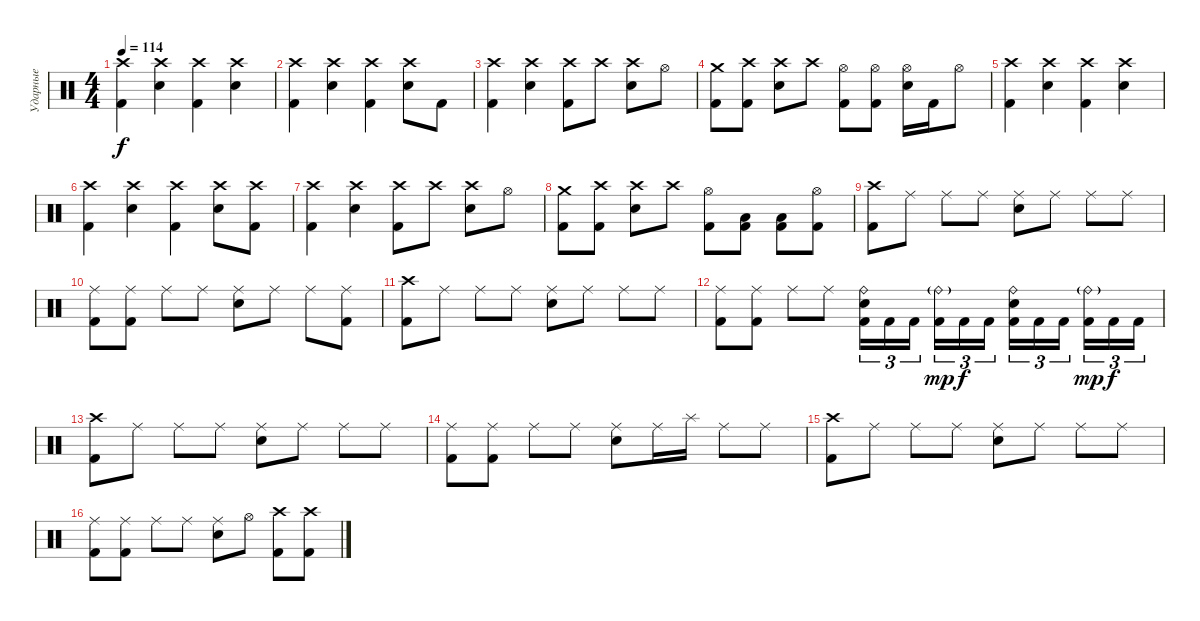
\track ("Ударные" "Ударные") {instrument percussion}
\staff {score}
\articulation defaults
\ts (4 4)
\tempo 114
\clef neutral
\ks c
("Crash high (hit)" "Kick (hit) 2").4{dy f} ("Crash high (hit)" "Electric Snare (hit)").4 ("Crash high (hit)" "Kick (hit) 2").4 ("Crash high (hit)" "Electric Snare (hit)").4 |
("Crash high (hit)" "Kick (hit) 2").4 ("Crash high (hit)" "Electric Snare (hit)").4 ("Crash high (hit)" "Kick (hit) 2").4 ("Crash high (hit)" "Electric Snare (hit)").8 "Kick (hit) 2".8 |
("Crash high (hit)" "Kick (hit) 2").4 ("Crash high (hit)" "Electric Snare (hit)").4 ("Crash high (hit)" "Kick (hit) 2").8 "Crash high (hit)".8 ("Crash high (hit)" "Electric Snare (hit)").8 "Hi-Hat (open)".8 |
("Crash medium (hit)" "Kick (hit) 2").8 ("Crash high (hit)" "Kick (hit) 2").8 ("Crash high (hit)" "Electric Snare (hit)").8 "Crash high (hit)".8 ("Hi-Hat (open)" "Kick (hit) 2").8 ("Hi-Hat (open)" "Kick (hit) 2").8 ("Hi-Hat (open)" "Electric Snare (hit)").16 "Kick (hit) 2".16 "Hi-Hat (open)".8 |
("Crash high (hit)" "Kick (hit) 2").4 ("Crash high (hit)" "Electric Snare (hit)").4 ("Crash high (hit)" "Kick (hit) 2").4 ("Crash high (hit)" "Electric Snare (hit)").4 |
("Crash high (hit)" "Kick (hit) 2").4 ("Crash high (hit)" "Electric Snare (hit)").4 ("Crash high (hit)" "Kick (hit) 2").4 ("Crash high (hit)" "Electric Snare (hit)").8 ("Crash high (hit)" "Kick (hit) 2").8 |
("Crash high (hit)" "Kick (hit) 2").4 ("Crash high (hit)" "Electric Snare (hit)").4 ("Crash high (hit)" "Kick (hit) 2").8 "Crash high (hit)".8 ("Crash high (hit)" "Electric Snare (hit)").8 "Hi-Hat (open)".8 |
("Crash medium (hit)" "Kick (hit) 2").8 ("Crash high (hit)" "Kick (hit) 2").8 ("Crash high (hit)" "Electric Snare (hit)").8 "Crash high (hit)".8 ("Hi-Hat (open)" "Kick (hit) 2").8 ("Low Tom (hit)" "Kick (hit) 2").8 ("Low Tom (hit)" "Kick (hit) 2").8 ("Hi-Hat (open)" "Kick (hit) 2").8 |
("Crash high (hit)" "Kick (hit) 2").8 "Ride (middle)".8 "Ride (middle)".8 "Ride (middle)".8 ("Ride (middle)" "Electric Snare (hit)").8 "Ride (middle)".8 "Ride (middle)".8 "Ride (middle)".8 |
("Ride (middle)" "Kick (hit) 2").8 ("Ride (middle)" "Kick (hit) 2").8 "Ride (middle)".8 "Ride (middle)".8 ("Ride (middle)" "Electric Snare (hit)").8 "Ride (middle)".8 "Ride (middle)".8 ("Ride (middle)" "Kick (hit) 2").8 |
("Crash high (hit)" "Kick (hit) 2").8 "Ride (middle)".8 "Ride (middle)".8 "Ride (middle)".8 ("Ride (middle)" "Electric Snare (hit)").8 "Ride (middle)".8 "Ride (middle)".8 "Ride (middle)".8 |
("Ride (middle)" "Kick (hit) 2").8 ("Ride (middle)" "Kick (hit) 2").8 "Ride (middle)".8 "Ride (middle)".8 ("Ride (bell)" "Electric Snare (hit)" "Kick (hit) 2").16{tu (3 2)} "Kick (hit) 2".16{tu (3 2)} "Kick (hit) 2".16{tu (3 2) beam splitsecondary} ("Ride (bell)"{g} "Kick (hit) 2").16{tu (3 2) dy mp} "Kick (hit) 2".16{tu (3 2) dy f} "Kick (hit) 2".16{tu (3 2)} ("Ride (bell)" "Electric Snare (hit)" "Kick (hit) 2").16{tu (3 2)} "Kick (hit) 2".16{tu (3 2)} "Kick (hit) 2".16{tu (3 2) beam splitsecondary} ("Ride (bell)"{g} "Kick (hit) 2").16{tu (3 2) dy mp} "Kick (hit) 2".16{tu (3 2) dy f} "Kick (hit) 2".16{tu (3 2)} |
("Crash high (hit)" "Kick (hit) 2").8 "Ride (middle)".8 "Ride (middle)".8 "Ride (middle)".8 ("Ride (middle)" "Electric Snare (hit)").8 "Ride (middle)".8 "Ride (middle)".8 "Ride (middle)".8 |
("Ride (middle)" "Kick (hit) 2").8 ("Ride (middle)" "Kick (hit) 2").8 "Ride (middle)".8 "Ride (middle)".8 ("Ride (middle)" "Electric Snare (hit)").8 "Ride (middle)".16 "Splash (hit)".16 "Ride (middle)".8 "Ride (middle)".8 |
("Crash high (hit)" "Kick (hit) 2").8 "Ride (middle)".8 "Ride (middle)".8 "Ride (middle)".8 ("Ride (middle)" "Electric Snare (hit)").8 "Ride (middle)".8 "Ride (middle)".8 "Ride (middle)".8 |
("Ride (middle)" "Kick (hit) 2").8 ("Ride (middle)" "Kick (hit) 2").8 "Ride (middle)".8 "Ride (middle)".8 ("Ride (middle)" "Electric Snare (hit)").8 "Hi-Hat (open)".8 ("Crash high (hit)" "Kick (hit) 2").8 ("Crash high (hit)" "Kick (hit) 2").8
